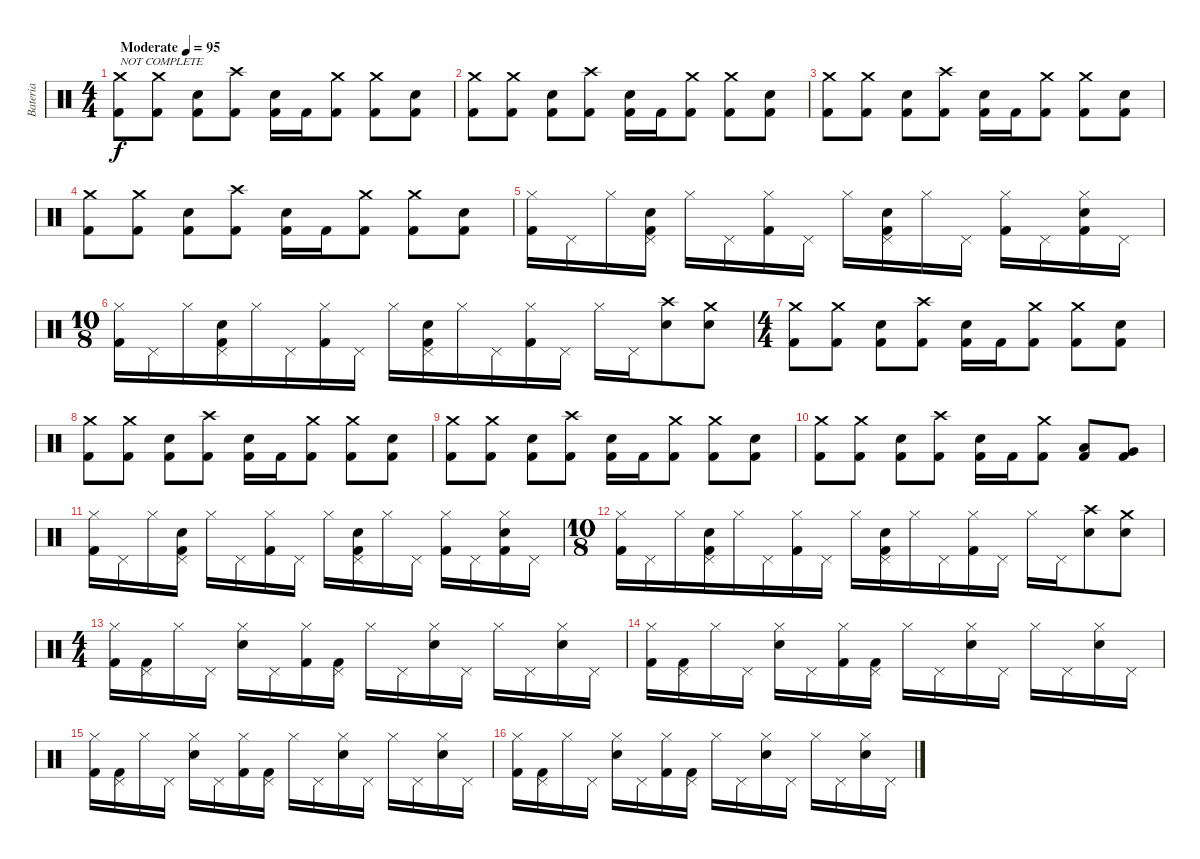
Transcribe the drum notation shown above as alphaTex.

\track ("Bateria" "Bateria") {instrument percussion}
\staff {score}
\articulation defaults
\ts (4 4)
\tempo (95 "Moderate")
\clef neutral
\ks c
("Crash medium (hit)" "Kick (hit) 2").8{txt "NOT COMPLETE" dy f} ("Crash medium (hit)" "Kick (hit) 2").8 ("Electric Snare (hit)" "Kick (hit) 2").8 ("Crash high (hit)" "Kick (hit) 2").8 ("Electric Snare (hit)" "Kick (hit) 2").16 "Kick (hit) 2".16 ("Crash medium (hit)" "Kick (hit) 2").8 ("Crash medium (hit)" "Kick (hit) 2").8 ("Electric Snare (hit)" "Kick (hit) 2").8 |
("Crash medium (hit)" "Kick (hit) 2").8 ("Crash medium (hit)" "Kick (hit) 2").8 ("Electric Snare (hit)" "Kick (hit) 2").8 ("Crash high (hit)" "Kick (hit) 2").8 ("Electric Snare (hit)" "Kick (hit) 2").16 "Kick (hit) 2".16 ("Crash medium (hit)" "Kick (hit) 2").8 ("Crash medium (hit)" "Kick (hit) 2").8 ("Electric Snare (hit)" "Kick (hit) 2").8 |
("Crash medium (hit)" "Kick (hit) 2").8 ("Crash medium (hit)" "Kick (hit) 2").8 ("Electric Snare (hit)" "Kick (hit) 2").8 ("Crash high (hit)" "Kick (hit) 2").8 ("Electric Snare (hit)" "Kick (hit) 2").16 "Kick (hit) 2".16 ("Crash medium (hit)" "Kick (hit) 2").8 ("Crash medium (hit)" "Kick (hit) 2").8 ("Electric Snare (hit)" "Kick (hit) 2").8 |
("Crash medium (hit)" "Kick (hit) 2").8 ("Crash medium (hit)" "Kick (hit) 2").8 ("Electric Snare (hit)" "Kick (hit) 2").8 ("Crash high (hit)" "Kick (hit) 2").8 ("Electric Snare (hit)" "Kick (hit) 2").16 "Kick (hit) 2".16 ("Crash medium (hit)" "Kick (hit) 2").8 ("Crash medium (hit)" "Kick (hit) 2").8 ("Electric Snare (hit)" "Kick (hit) 2").8 |
("Hi-Hat (closed)" "Kick (hit) 2").16 "Pedal Hi-Hat (hit)".16 "Hi-Hat (closed)".16 ("Pedal Hi-Hat (hit)" "Electric Snare (hit)" "Kick (hit) 2").16 "Hi-Hat (closed)".16 "Pedal Hi-Hat (hit)".16 ("Hi-Hat (closed)" "Kick (hit) 2").16 "Pedal Hi-Hat (hit)".16 "Hi-Hat (closed)".16 ("Pedal Hi-Hat (hit)" "Electric Snare (hit)" "Kick (hit) 2").16 "Hi-Hat (closed)".16 "Pedal Hi-Hat (hit)".16 ("Hi-Hat (closed)" "Kick (hit) 2").16 "Pedal Hi-Hat (hit)".16 ("Hi-Hat (closed)" "Electric Snare (hit)" "Kick (hit) 2").16 "Pedal Hi-Hat (hit)".16 |
\ts (10 8)
("Hi-Hat (closed)" "Kick (hit) 2").16 "Pedal Hi-Hat (hit)".16 "Hi-Hat (closed)".16 ("Pedal Hi-Hat (hit)" "Electric Snare (hit)" "Kick (hit) 2").16 "Hi-Hat (closed)".16 "Pedal Hi-Hat (hit)".16 ("Hi-Hat (closed)" "Kick (hit) 2").16 "Pedal Hi-Hat (hit)".16 "Hi-Hat (closed)".16 ("Pedal Hi-Hat (hit)" "Electric Snare (hit)" "Kick (hit) 2").16 "Hi-Hat (closed)".16 "Pedal Hi-Hat (hit)".16 ("Hi-Hat (closed)" "Kick (hit) 2").16 "Pedal Hi-Hat (hit)".16 "Hi-Hat (closed)".16 "Pedal Hi-Hat (hit)".16 ("Crash high (hit)" "Electric Snare (hit)").8 ("Crash medium (hit)" "Electric Snare (hit)").8 |
\ts (4 4)
("Crash medium (hit)" "Kick (hit) 2").8 ("Crash medium (hit)" "Kick (hit) 2").8 ("Electric Snare (hit)" "Kick (hit) 2").8 ("Crash high (hit)" "Kick (hit) 2").8 ("Electric Snare (hit)" "Kick (hit) 2").16 "Kick (hit) 2".16 ("Crash medium (hit)" "Kick (hit) 2").8 ("Crash medium (hit)" "Kick (hit) 2").8 ("Electric Snare (hit)" "Kick (hit) 2").8 |
("Crash medium (hit)" "Kick (hit) 2").8 ("Crash medium (hit)" "Kick (hit) 2").8 ("Electric Snare (hit)" "Kick (hit) 2").8 ("Crash high (hit)" "Kick (hit) 2").8 ("Electric Snare (hit)" "Kick (hit) 2").16 "Kick (hit) 2".16 ("Crash medium (hit)" "Kick (hit) 2").8 ("Crash medium (hit)" "Kick (hit) 2").8 ("Electric Snare (hit)" "Kick (hit) 2").8 |
("Crash medium (hit)" "Kick (hit) 2").8 ("Crash medium (hit)" "Kick (hit) 2").8 ("Electric Snare (hit)" "Kick (hit) 2").8 ("Crash high (hit)" "Kick (hit) 2").8 ("Electric Snare (hit)" "Kick (hit) 2").16 "Kick (hit) 2".16 ("Crash medium (hit)" "Kick (hit) 2").8 ("Crash medium (hit)" "Kick (hit) 2").8 ("Electric Snare (hit)" "Kick (hit) 2").8 |
("Crash medium (hit)" "Kick (hit) 2").8 ("Crash medium (hit)" "Kick (hit) 2").8 ("Electric Snare (hit)" "Kick (hit) 2").8 ("Crash high (hit)" "Kick (hit) 2").8 ("Electric Snare (hit)" "Kick (hit) 2").16 "Kick (hit) 2".16 ("Crash medium (hit)" "Kick (hit) 2").8 ("Low Tom (hit)" "Kick (hit) 2").8 ("Very Low Tom (hit)" "Kick (hit) 2").8 |
("Hi-Hat (closed)" "Kick (hit) 2").16 "Pedal Hi-Hat (hit)".16 "Hi-Hat (closed)".16 ("Pedal Hi-Hat (hit)" "Electric Snare (hit)" "Kick (hit) 2").16 "Hi-Hat (closed)".16 "Pedal Hi-Hat (hit)".16 ("Hi-Hat (closed)" "Kick (hit) 2").16 "Pedal Hi-Hat (hit)".16 "Hi-Hat (closed)".16 ("Pedal Hi-Hat (hit)" "Electric Snare (hit)" "Kick (hit) 2").16 "Hi-Hat (closed)".16 "Pedal Hi-Hat (hit)".16 ("Hi-Hat (closed)" "Kick (hit) 2").16 "Pedal Hi-Hat (hit)".16 ("Hi-Hat (closed)" "Electric Snare (hit)" "Kick (hit) 2").16 "Pedal Hi-Hat (hit)".16 |
\ts (10 8)
("Hi-Hat (closed)" "Kick (hit) 2").16 "Pedal Hi-Hat (hit)".16 "Hi-Hat (closed)".16 ("Pedal Hi-Hat (hit)" "Electric Snare (hit)" "Kick (hit) 2").16 "Hi-Hat (closed)".16 "Pedal Hi-Hat (hit)".16 ("Hi-Hat (closed)" "Kick (hit) 2").16 "Pedal Hi-Hat (hit)".16 "Hi-Hat (closed)".16 ("Pedal Hi-Hat (hit)" "Electric Snare (hit)" "Kick (hit) 2").16 "Hi-Hat (closed)".16 "Pedal Hi-Hat (hit)".16 ("Hi-Hat (closed)" "Kick (hit) 2").16 "Pedal Hi-Hat (hit)".16 "Hi-Hat (closed)".16 "Pedal Hi-Hat (hit)".16 ("Crash high (hit)" "Electric Snare (hit)").8 ("Crash medium (hit)" "Electric Snare (hit)").8 |
\ts (4 4)
("Hi-Hat (closed)" "Kick (hit) 2").16 ("Pedal Hi-Hat (hit)" "Kick (hit) 2").16 "Hi-Hat (closed)".16 "Pedal Hi-Hat (hit)".16 ("Hi-Hat (closed)" "Electric Snare (hit)").16 "Pedal Hi-Hat (hit)".16 ("Hi-Hat (closed)" "Kick (hit) 2").16 ("Pedal Hi-Hat (hit)" "Kick (hit) 2").16 "Hi-Hat (closed)".16 "Pedal Hi-Hat (hit)".16 ("Hi-Hat (closed)" "Electric Snare (hit)").16 "Pedal Hi-Hat (hit)".16 "Hi-Hat (closed)".16 "Pedal Hi-Hat (hit)".16 ("Hi-Hat (closed)" "Electric Snare (hit)").16 "Pedal Hi-Hat (hit)".16 |
("Hi-Hat (closed)" "Kick (hit) 2").16 ("Pedal Hi-Hat (hit)" "Kick (hit) 2").16 "Hi-Hat (closed)".16 "Pedal Hi-Hat (hit)".16 ("Hi-Hat (closed)" "Electric Snare (hit)").16 "Pedal Hi-Hat (hit)".16 ("Hi-Hat (closed)" "Kick (hit) 2").16 ("Pedal Hi-Hat (hit)" "Kick (hit) 2").16 "Hi-Hat (closed)".16 "Pedal Hi-Hat (hit)".16 ("Hi-Hat (closed)" "Electric Snare (hit)").16 "Pedal Hi-Hat (hit)".16 "Hi-Hat (closed)".16 "Pedal Hi-Hat (hit)".16 ("Hi-Hat (closed)" "Electric Snare (hit)").16 "Pedal Hi-Hat (hit)".16 |
("Hi-Hat (closed)" "Kick (hit) 2").16 ("Pedal Hi-Hat (hit)" "Kick (hit) 2").16 "Hi-Hat (closed)".16 "Pedal Hi-Hat (hit)".16 ("Hi-Hat (closed)" "Electric Snare (hit)").16 "Pedal Hi-Hat (hit)".16 ("Hi-Hat (closed)" "Kick (hit) 2").16 ("Pedal Hi-Hat (hit)" "Kick (hit) 2").16 "Hi-Hat (closed)".16 "Pedal Hi-Hat (hit)".16 ("Hi-Hat (closed)" "Electric Snare (hit)").16 "Pedal Hi-Hat (hit)".16 "Hi-Hat (closed)".16 "Pedal Hi-Hat (hit)".16 ("Hi-Hat (closed)" "Electric Snare (hit)").16 "Pedal Hi-Hat (hit)".16 |
("Hi-Hat (closed)" "Kick (hit) 2").16 ("Pedal Hi-Hat (hit)" "Kick (hit) 2").16 "Hi-Hat (closed)".16 "Pedal Hi-Hat (hit)".16 ("Hi-Hat (closed)" "Electric Snare (hit)").16 "Pedal Hi-Hat (hit)".16 ("Hi-Hat (closed)" "Kick (hit) 2").16 ("Pedal Hi-Hat (hit)" "Kick (hit) 2").16 "Hi-Hat (closed)".16 "Pedal Hi-Hat (hit)".16 ("Hi-Hat (closed)" "Electric Snare (hit)").16 "Pedal Hi-Hat (hit)".16 "Hi-Hat (closed)".16 "Pedal Hi-Hat (hit)".16 ("Hi-Hat (closed)" "Electric Snare (hit)").16 "Pedal Hi-Hat (hit)".16
